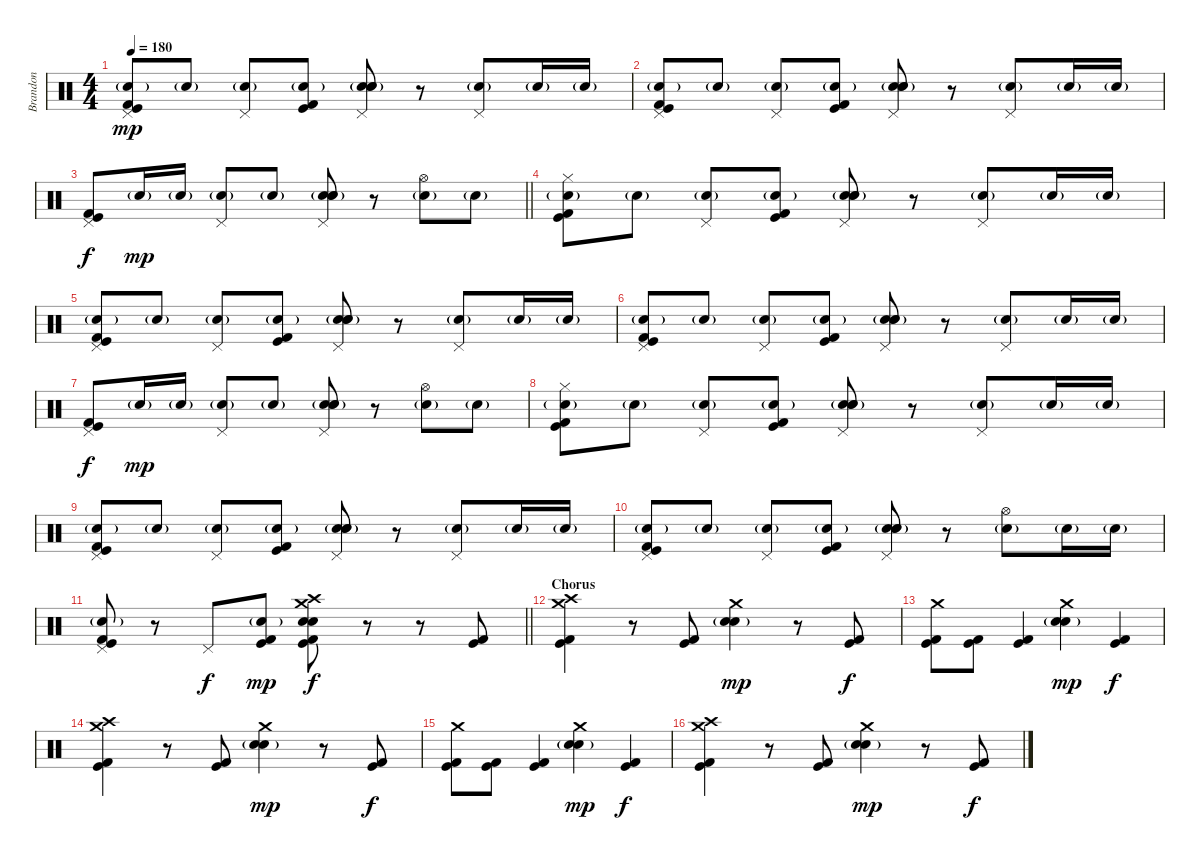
\track ("Brandon" "Brandon") {instrument percussion}
\staff {score}
\articulation defaults
\ts (4 4)
\tempo 180
\clef neutral
\ks c
("Pedal Hi-Hat (hit)" "Snare (hit) 2"{g} "Kick (hit)" "Kick (hit) 2").8{dy mp} "Snare (hit) 2"{g}.8 ("Pedal Hi-Hat (hit)" "Snare (hit) 2"{g}).8 ("Snare (hit) 2"{g} "Kick (hit)" "Kick (hit) 2").8 ("Pedal Hi-Hat (hit)" "Electric Snare (hit)" "Snare (hit) 2" "Snare (hit) 2"{g}).8 r.8 ("Pedal Hi-Hat (hit)" "Snare (hit) 2"{g}).8 "Snare (hit) 2"{g}.16 "Snare (hit) 2"{g}.16 |
("Pedal Hi-Hat (hit)" "Snare (hit) 2"{g} "Kick (hit)" "Kick (hit) 2").8 "Snare (hit) 2"{g}.8 ("Pedal Hi-Hat (hit)" "Snare (hit) 2"{g}).8 ("Snare (hit) 2"{g} "Kick (hit)" "Kick (hit) 2").8 ("Pedal Hi-Hat (hit)" "Electric Snare (hit)" "Snare (hit) 2" "Snare (hit) 2"{g}).8 r.8 ("Pedal Hi-Hat (hit)" "Snare (hit) 2"{g}).8 "Snare (hit) 2"{g}.16 "Snare (hit) 2"{g}.16 |
\barLineRight lightlight
("Pedal Hi-Hat (hit)" "Kick (hit)" "Kick (hit) 2").8{dy f} "Snare (hit) 2"{g}.16{dy mp} "Snare (hit) 2"{g}.16 ("Pedal Hi-Hat (hit)" "Snare (hit) 2"{g}).8 "Snare (hit) 2"{g}.8 ("Pedal Hi-Hat (hit)" "Electric Snare (hit)" "Snare (hit) 2" "Snare (hit) 2"{g}).8 r.8 ("Hi-Hat (open)" "Snare (hit) 2"{g}).8 "Snare (hit) 2"{g}.8 |
("Hi-Hat (closed)" "Snare (hit) 2"{g} "Kick (hit)" "Kick (hit) 2").8 "Snare (hit) 2"{g}.8 ("Pedal Hi-Hat (hit)" "Snare (hit) 2"{g}).8 ("Snare (hit) 2"{g} "Kick (hit)" "Kick (hit) 2").8 ("Pedal Hi-Hat (hit)" "Electric Snare (hit)" "Snare (hit) 2" "Snare (hit) 2"{g}).8 r.8 ("Pedal Hi-Hat (hit)" "Snare (hit) 2"{g}).8 "Snare (hit) 2"{g}.16 "Snare (hit) 2"{g}.16 |
("Pedal Hi-Hat (hit)" "Snare (hit) 2"{g} "Kick (hit)" "Kick (hit) 2").8 "Snare (hit) 2"{g}.8 ("Pedal Hi-Hat (hit)" "Snare (hit) 2"{g}).8 ("Snare (hit) 2"{g} "Kick (hit)" "Kick (hit) 2").8 ("Pedal Hi-Hat (hit)" "Electric Snare (hit)" "Snare (hit) 2" "Snare (hit) 2"{g}).8 r.8 ("Pedal Hi-Hat (hit)" "Snare (hit) 2"{g}).8 "Snare (hit) 2"{g}.16 "Snare (hit) 2"{g}.16 |
("Pedal Hi-Hat (hit)" "Snare (hit) 2"{g} "Kick (hit)" "Kick (hit) 2").8 "Snare (hit) 2"{g}.8 ("Pedal Hi-Hat (hit)" "Snare (hit) 2"{g}).8 ("Snare (hit) 2"{g} "Kick (hit)" "Kick (hit) 2").8 ("Pedal Hi-Hat (hit)" "Electric Snare (hit)" "Snare (hit) 2" "Snare (hit) 2"{g}).8 r.8 ("Pedal Hi-Hat (hit)" "Snare (hit) 2"{g}).8 "Snare (hit) 2"{g}.16 "Snare (hit) 2"{g}.16 |
("Pedal Hi-Hat (hit)" "Kick (hit)" "Kick (hit) 2").8{dy f} "Snare (hit) 2"{g}.16{dy mp} "Snare (hit) 2"{g}.16 ("Pedal Hi-Hat (hit)" "Snare (hit) 2"{g}).8 "Snare (hit) 2"{g}.8 ("Pedal Hi-Hat (hit)" "Electric Snare (hit)" "Snare (hit) 2" "Snare (hit) 2"{g}).8 r.8 ("Hi-Hat (open)" "Snare (hit) 2"{g}).8 "Snare (hit) 2"{g}.8 |
("Hi-Hat (closed)" "Snare (hit) 2"{g} "Kick (hit)" "Kick (hit) 2").8 "Snare (hit) 2"{g}.8 ("Pedal Hi-Hat (hit)" "Snare (hit) 2"{g}).8 ("Snare (hit) 2"{g} "Kick (hit)" "Kick (hit) 2").8 ("Pedal Hi-Hat (hit)" "Electric Snare (hit)" "Snare (hit) 2" "Snare (hit) 2"{g}).8 r.8 ("Pedal Hi-Hat (hit)" "Snare (hit) 2"{g}).8 "Snare (hit) 2"{g}.16 "Snare (hit) 2"{g}.16 |
("Pedal Hi-Hat (hit)" "Snare (hit) 2"{g} "Kick (hit)" "Kick (hit) 2").8 "Snare (hit) 2"{g}.8 ("Pedal Hi-Hat (hit)" "Snare (hit) 2"{g}).8 ("Snare (hit) 2"{g} "Kick (hit)" "Kick (hit) 2").8 ("Pedal Hi-Hat (hit)" "Electric Snare (hit)" "Snare (hit) 2" "Snare (hit) 2"{g}).8 r.8 ("Pedal Hi-Hat (hit)" "Snare (hit) 2"{g}).8 "Snare (hit) 2"{g}.16 "Snare (hit) 2"{g}.16 |
("Pedal Hi-Hat (hit)" "Snare (hit) 2"{g} "Kick (hit)" "Kick (hit) 2").8 "Snare (hit) 2"{g}.8 ("Pedal Hi-Hat (hit)" "Snare (hit) 2"{g}).8 ("Snare (hit) 2"{g} "Kick (hit)" "Kick (hit) 2").8 ("Pedal Hi-Hat (hit)" "Electric Snare (hit)" "Snare (hit) 2" "Snare (hit) 2"{g}).8 r.8 ("Hi-Hat (open)" "Snare (hit) 2"{g}).8 "Snare (hit) 2"{g}.16 "Snare (hit) 2"{g}.16 |
\barLineRight lightlight
("Pedal Hi-Hat (hit)" "Snare (hit) 2"{g} "Kick (hit) 2" "Kick (hit)").8 r.8 "Pedal Hi-Hat (hit)".8{dy f} ("Snare (hit) 2"{g} "Kick (hit) 2" "Kick (hit)").8{dy mp} ("Crash high (hit)" "Crash medium (hit)" "Snare (hit) 2" "Electric Snare (hit)" "Kick (hit)" "Kick (hit) 2").8{dy f} r.8 r.8 ("Kick (hit) 2" "Kick (hit)").8 |
\section ("" "Chorus")
("Crash high (hit)" "Crash medium (hit)" "Kick (hit)" "Kick (hit) 2").4 r.8 ("Kick (hit)" "Kick (hit) 2").8 ("Crash medium (hit)" "Snare (hit) 2" "Electric Snare (hit)"{g}).4{dy mp} r.8 ("Kick (hit)" "Kick (hit) 2").8{dy f} |
("Crash medium (hit)" "Kick (hit) 2" "Kick (hit)").8 ("Kick (hit)" "Kick (hit) 2").8 ("Kick (hit)" "Kick (hit) 2").4 ("Crash medium (hit)" "Snare (hit) 2" "Electric Snare (hit)"{g}).4{dy mp} ("Kick (hit)" "Kick (hit) 2").4{dy f} |
("Crash high (hit)" "Crash medium (hit)" "Kick (hit)" "Kick (hit) 2").4 r.8 ("Kick (hit)" "Kick (hit) 2").8 ("Crash medium (hit)" "Snare (hit) 2" "Electric Snare (hit)"{g}).4{dy mp} r.8 ("Kick (hit)" "Kick (hit) 2").8{dy f} |
("Crash medium (hit)" "Kick (hit) 2" "Kick (hit)").8 ("Kick (hit)" "Kick (hit) 2").8 ("Kick (hit)" "Kick (hit) 2").4 ("Crash medium (hit)" "Snare (hit) 2" "Electric Snare (hit)"{g}).4{dy mp} ("Kick (hit)" "Kick (hit) 2").4{dy f} |
("Crash high (hit)" "Crash medium (hit)" "Kick (hit)" "Kick (hit) 2").4 r.8 ("Kick (hit)" "Kick (hit) 2").8 ("Crash medium (hit)" "Snare (hit) 2" "Electric Snare (hit)"{g}).4{dy mp} r.8 ("Kick (hit)" "Kick (hit) 2").8{dy f}
